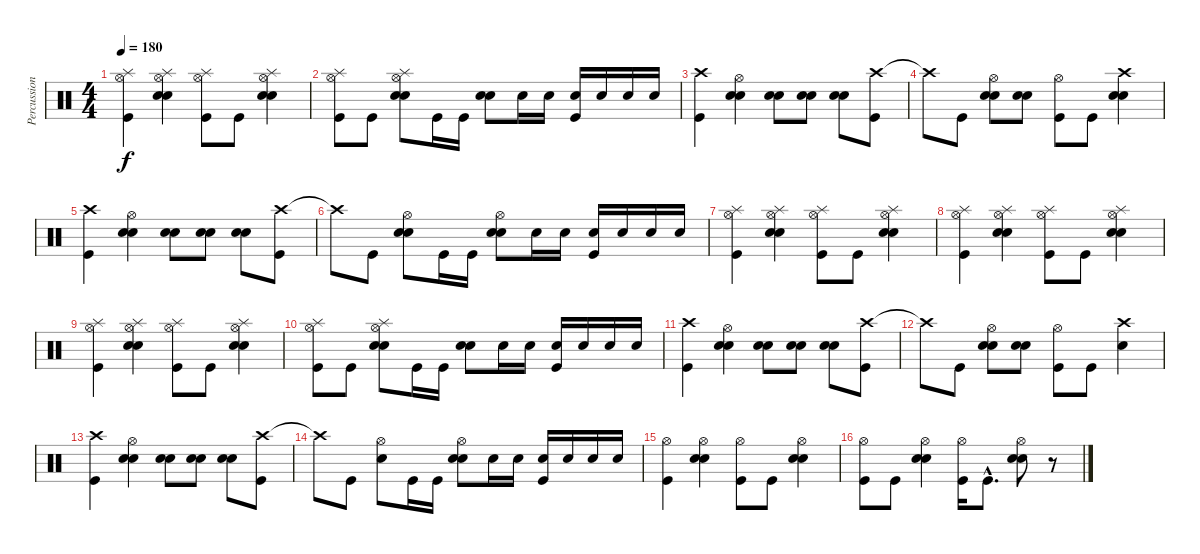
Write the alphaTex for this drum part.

\track ("Percussion" "Percussion") {instrument percussion}
\staff {score}
\articulation defaults
\ts (4 4)
\tempo 180
\clef neutral
\ks c
("Splash (hit)" "Hi-Hat (open)" "Kick (hit)").4{dy f} ("Splash (hit)" "Hi-Hat (open)" "Snare (hit) 2" "Electric Snare (hit)").4 ("Splash (hit)" "Hi-Hat (open)" "Kick (hit)").8 "Kick (hit)".8 ("Splash (hit)" "Hi-Hat (open)" "Snare (hit) 2" "Electric Snare (hit)").4 |
("Splash (hit)" "Hi-Hat (open)" "Kick (hit)").8 "Kick (hit)".8 ("Splash (hit)" "Hi-Hat (open)" "Snare (hit) 2" "Electric Snare (hit)").8 "Kick (hit)".16 "Kick (hit)".16 ("Snare (hit) 2" "Electric Snare (hit)").8 "Snare (hit) 2".16 "Snare (hit) 2".16 ("Snare (hit) 2" "Kick (hit)").16 "Snare (hit) 2".16 "Snare (hit) 2".16 "Snare (hit) 2".16 |
("Crash high (hit)" "Kick (hit)").4 ("Hi-Hat (open)" "Snare (hit) 2" "Electric Snare (hit)").4 ("Snare (hit) 2" "Electric Snare (hit)").8 ("Snare (hit) 2" "Electric Snare (hit)").8 ("Snare (hit) 2" "Electric Snare (hit)").8 ("Crash high (hit)" "Kick (hit)").8 |
"Crash high (hit)"{t}.8 "Kick (hit)".8 ("Hi-Hat (open)" "Snare (hit) 2" "Electric Snare (hit)").8 ("Snare (hit) 2" "Electric Snare (hit)").8 ("Hi-Hat (open)" "Kick (hit)").8 "Kick (hit)".8 ("Crash high (hit)" "Snare (hit) 2" "Electric Snare (hit)").4 |
("Crash high (hit)" "Kick (hit)").4 ("Hi-Hat (open)" "Snare (hit) 2" "Electric Snare (hit)").4 ("Snare (hit) 2" "Electric Snare (hit)").8 ("Snare (hit) 2" "Electric Snare (hit)").8 ("Snare (hit) 2" "Electric Snare (hit)").8 ("Crash high (hit)" "Kick (hit)").8 |
"Crash high (hit)"{t}.8 "Kick (hit)".8 ("Hi-Hat (open)" "Snare (hit) 2" "Electric Snare (hit)").8 "Kick (hit)".16 "Kick (hit)".16 ("Hi-Hat (open)" "Snare (hit) 2" "Electric Snare (hit)").8 "Snare (hit) 2".16 "Snare (hit) 2".16 ("Snare (hit) 2" "Kick (hit)").16 "Snare (hit) 2".16 "Snare (hit) 2".16 "Snare (hit) 2".16 |
("Splash (hit)" "Hi-Hat (open)" "Kick (hit)").4 ("Splash (hit)" "Hi-Hat (open)" "Snare (hit) 2" "Electric Snare (hit)").4 ("Splash (hit)" "Hi-Hat (open)" "Kick (hit)").8 "Kick (hit)".8 ("Splash (hit)" "Hi-Hat (open)" "Snare (hit) 2" "Electric Snare (hit)").4 |
("Splash (hit)" "Hi-Hat (open)" "Kick (hit)").4 ("Splash (hit)" "Hi-Hat (open)" "Snare (hit) 2" "Electric Snare (hit)").4 ("Splash (hit)" "Hi-Hat (open)" "Kick (hit)").8 "Kick (hit)".8 ("Splash (hit)" "Hi-Hat (open)" "Snare (hit) 2" "Electric Snare (hit)").4 |
("Splash (hit)" "Hi-Hat (open)" "Kick (hit)").4 ("Splash (hit)" "Hi-Hat (open)" "Snare (hit) 2" "Electric Snare (hit)").4 ("Splash (hit)" "Hi-Hat (open)" "Kick (hit)").8 "Kick (hit)".8 ("Splash (hit)" "Hi-Hat (open)" "Snare (hit) 2" "Electric Snare (hit)").4 |
("Splash (hit)" "Hi-Hat (open)" "Kick (hit)").8 "Kick (hit)".8 ("Splash (hit)" "Hi-Hat (open)" "Snare (hit) 2" "Electric Snare (hit)").8 "Kick (hit)".16 "Kick (hit)".16 ("Snare (hit) 2" "Electric Snare (hit)").8 "Snare (hit) 2".16 "Snare (hit) 2".16 ("Snare (hit) 2" "Kick (hit)").16 "Snare (hit) 2".16 "Snare (hit) 2".16 "Snare (hit) 2".16 |
("Crash high (hit)" "Kick (hit)").4 ("Hi-Hat (open)" "Snare (hit) 2" "Electric Snare (hit)").4 ("Snare (hit) 2" "Electric Snare (hit)").8 ("Snare (hit) 2" "Electric Snare (hit)").8 ("Snare (hit) 2" "Electric Snare (hit)").8 ("Crash high (hit)" "Kick (hit)").8 |
"Crash high (hit)"{t}.8 "Kick (hit)".8 ("Hi-Hat (open)" "Snare (hit) 2" "Electric Snare (hit)").8 ("Snare (hit) 2" "Electric Snare (hit)").8 ("Hi-Hat (open)" "Kick (hit)").8 "Kick (hit)".8 ("Crash high (hit)" "Snare (hit) 2").4 |
("Crash high (hit)" "Kick (hit)").4 ("Hi-Hat (open)" "Snare (hit) 2" "Electric Snare (hit)").4 ("Snare (hit) 2" "Electric Snare (hit)").8 ("Snare (hit) 2" "Electric Snare (hit)").8 ("Snare (hit) 2" "Electric Snare (hit)").8 ("Crash high (hit)" "Kick (hit)").8 |
"Crash high (hit)"{t}.8 "Kick (hit)".8 ("Hi-Hat (open)" "Snare (hit) 2").8 "Kick (hit)".16 "Kick (hit)".16 ("Hi-Hat (open)" "Snare (hit) 2" "Electric Snare (hit)").8 "Snare (hit) 2".16 "Snare (hit) 2".16 ("Snare (hit) 2" "Kick (hit)").16 "Snare (hit) 2".16 "Snare (hit) 2".16 "Snare (hit) 2".16 |
("Hi-Hat (open)" "Kick (hit)").4 ("Hi-Hat (open)" "Snare (hit) 2" "Electric Snare (hit)").4 ("Hi-Hat (open)" "Kick (hit)").8 "Kick (hit)".8 ("Hi-Hat (open)" "Snare (hit) 2" "Electric Snare (hit)").4 |
("Hi-Hat (open)" "Kick (hit)").8 "Kick (hit)".8 ("Hi-Hat (open)" "Snare (hit) 2" "Electric Snare (hit)").4 ("Hi-Hat (open)" "Kick (hit)").16 "Kick (hit)"{hac}.8{d} ("Hi-Hat (open)" "Snare (hit) 2" "Electric Snare (hit)").8 r.8
